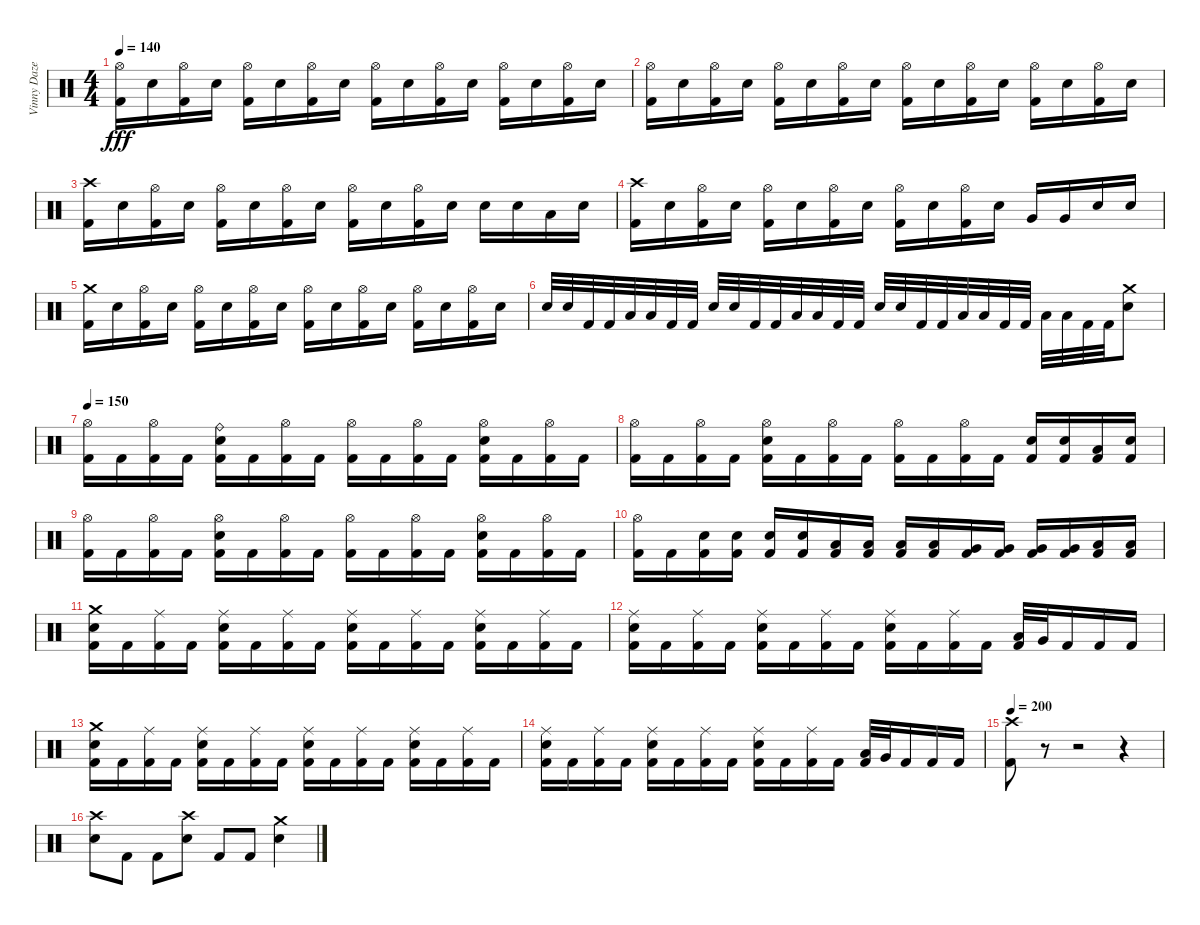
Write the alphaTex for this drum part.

\track ("Vinny Daze (R.I.P.)" "Vinny Daze") {instrument percussion}
\staff {score}
\articulation defaults
\ts (4 4)
\tempo 140
\clef neutral
\ks c
("Hi-Hat (open)" "Kick (hit) 2").16{dy fff} "Electric Snare (hit)".16 ("Hi-Hat (open)" "Kick (hit) 2").16 "Electric Snare (hit)".16 ("Hi-Hat (open)" "Kick (hit) 2").16 "Electric Snare (hit)".16 ("Hi-Hat (open)" "Kick (hit) 2").16 "Electric Snare (hit)".16 ("Hi-Hat (open)" "Kick (hit) 2").16 "Electric Snare (hit)".16 ("Hi-Hat (open)" "Kick (hit) 2").16 "Electric Snare (hit)".16 ("Hi-Hat (open)" "Kick (hit) 2").16 "Electric Snare (hit)".16 ("Hi-Hat (open)" "Kick (hit) 2").16 "Electric Snare (hit)".16 |
("Hi-Hat (open)" "Kick (hit) 2").16 "Electric Snare (hit)".16 ("Hi-Hat (open)" "Kick (hit) 2").16 "Electric Snare (hit)".16 ("Hi-Hat (open)" "Kick (hit) 2").16 "Electric Snare (hit)".16 ("Hi-Hat (open)" "Kick (hit) 2").16 "Electric Snare (hit)".16 ("Hi-Hat (open)" "Kick (hit) 2").16 "Electric Snare (hit)".16 ("Hi-Hat (open)" "Kick (hit) 2").16 "Electric Snare (hit)".16 ("Hi-Hat (open)" "Kick (hit) 2").16 "Electric Snare (hit)".16 ("Hi-Hat (open)" "Kick (hit) 2").16 "Electric Snare (hit)".16 |
("Crash high (hit)" "Kick (hit) 2").16 "Electric Snare (hit)".16 ("Hi-Hat (open)" "Kick (hit) 2").16 "Electric Snare (hit)".16 ("Hi-Hat (open)" "Kick (hit) 2").16 "Electric Snare (hit)".16 ("Hi-Hat (open)" "Kick (hit) 2").16 "Electric Snare (hit)".16 ("Hi-Hat (open)" "Kick (hit) 2").16 "Electric Snare (hit)".16 ("Hi-Hat (open)" "Kick (hit) 2").16 "Electric Snare (hit)".16 "Electric Snare (hit)".16 "Electric Snare (hit)".16 "Low Tom (hit)".16 "Electric Snare (hit)".16 |
("Crash high (hit)" "Kick (hit) 2").16 "Electric Snare (hit)".16 ("Hi-Hat (open)" "Kick (hit) 2").16 "Electric Snare (hit)".16 ("Hi-Hat (open)" "Kick (hit) 2").16 "Electric Snare (hit)".16 ("Hi-Hat (open)" "Kick (hit) 2").16 "Electric Snare (hit)".16 ("Hi-Hat (open)" "Kick (hit) 2").16 "Electric Snare (hit)".16 ("Hi-Hat (open)" "Kick (hit) 2").16 "Electric Snare (hit)".16 "Very Low Tom (hit)".16 "Very Low Tom (hit)".16 "Electric Snare (hit)".16 "Electric Snare (hit)".16 |
("Crash medium (hit)" "Kick (hit) 2").16 "Electric Snare (hit)".16 ("Hi-Hat (open)" "Kick (hit) 2").16 "Electric Snare (hit)".16 ("Hi-Hat (open)" "Kick (hit) 2").16 "Electric Snare (hit)".16 ("Hi-Hat (open)" "Kick (hit) 2").16 "Electric Snare (hit)".16 ("Hi-Hat (open)" "Kick (hit) 2").16 "Electric Snare (hit)".16 ("Hi-Hat (open)" "Kick (hit) 2").16 "Electric Snare (hit)".16 ("Hi-Hat (open)" "Kick (hit) 2").16 "Electric Snare (hit)".16 ("Hi-Hat (open)" "Kick (hit) 2").16 "Electric Snare (hit)".16 |
"Electric Snare (hit)".32 "Electric Snare (hit)".32 "Kick (hit) 2".32 "Kick (hit) 2".32 "Low Floor Tom (hit)".32 "Low Floor Tom (hit)".32 "Kick (hit) 2".32 "Kick (hit) 2".32 "Electric Snare (hit)".32 "Electric Snare (hit)".32 "Kick (hit) 2".32 "Kick (hit) 2".32 "Low Floor Tom (hit)".32 "Low Floor Tom (hit)".32 "Kick (hit) 2".32 "Kick (hit) 2".32 "Electric Snare (hit)".32 "Electric Snare (hit)".32 "Kick (hit) 2".32 "Kick (hit) 2".32 "Low Floor Tom (hit)".32 "Low Floor Tom (hit)".32 "Kick (hit) 2".32 "Kick (hit) 2".32 "Low Floor Tom (hit)".32 "Low Floor Tom (hit)".32 "Kick (hit) 2".32 "Kick (hit) 2".32 ("Crash medium (hit)" "Electric Snare (hit)").8 |
\tempo 150
("Hi-Hat (open)" "Kick (hit) 2").16 "Kick (hit) 2".16 ("Hi-Hat (open)" "Kick (hit) 2").16 "Kick (hit) 2".16 ("Ride (bell)" "Electric Snare (hit)" "Kick (hit) 2").16 "Kick (hit) 2".16 ("Hi-Hat (open)" "Kick (hit) 2").16 "Kick (hit) 2".16 ("Hi-Hat (open)" "Kick (hit) 2").16 "Kick (hit) 2".16 ("Hi-Hat (open)" "Kick (hit) 2").16 "Kick (hit) 2".16 ("Hi-Hat (open)" "Electric Snare (hit)" "Kick (hit) 2").16 "Kick (hit) 2".16 ("Hi-Hat (open)" "Kick (hit) 2").16 "Kick (hit) 2".16 |
("Hi-Hat (open)" "Kick (hit) 2").16 "Kick (hit) 2".16 ("Hi-Hat (open)" "Kick (hit) 2").16 "Kick (hit) 2".16 ("Hi-Hat (open)" "Electric Snare (hit)" "Kick (hit) 2").16 "Kick (hit) 2".16 ("Hi-Hat (open)" "Kick (hit) 2").16 "Kick (hit) 2".16 ("Hi-Hat (open)" "Kick (hit) 2").16 "Kick (hit) 2".16 ("Hi-Hat (open)" "Kick (hit) 2").16 "Kick (hit) 2".16 ("Electric Snare (hit)" "Kick (hit) 2").16 ("Electric Snare (hit)" "Kick (hit) 2").16 ("Low Tom (hit)" "Kick (hit) 2").16 ("Electric Snare (hit)" "Kick (hit) 2").16 |
("Hi-Hat (open)" "Kick (hit) 2").16 "Kick (hit) 2".16 ("Hi-Hat (open)" "Kick (hit) 2").16 "Kick (hit) 2".16 ("Hi-Hat (open)" "Electric Snare (hit)" "Kick (hit) 2").16 "Kick (hit) 2".16 ("Hi-Hat (open)" "Kick (hit) 2").16 "Kick (hit) 2".16 ("Hi-Hat (open)" "Kick (hit) 2").16 "Kick (hit) 2".16 ("Hi-Hat (open)" "Kick (hit) 2").16 "Kick (hit) 2".16 ("Hi-Hat (open)" "Electric Snare (hit)" "Kick (hit) 2").16 "Kick (hit) 2".16 ("Hi-Hat (open)" "Kick (hit) 2").16 "Kick (hit) 2".16 |
("Hi-Hat (open)" "Kick (hit) 2").16 "Kick (hit) 2".16 ("Electric Snare (hit)" "Kick (hit) 2").16 ("Electric Snare (hit)" "Kick (hit) 2").16 ("Electric Snare (hit)" "Kick (hit) 2").16 ("Electric Snare (hit)" "Kick (hit) 2").16 ("Low Tom (hit)" "Kick (hit) 2").16 ("Low Tom (hit)" "Kick (hit) 2").16 ("Low Tom (hit)" "Kick (hit) 2").16 ("Low Tom (hit)" "Kick (hit) 2").16 ("Very Low Tom (hit)" "Kick (hit) 2").16 ("Very Low Tom (hit)" "Kick (hit) 2").16 ("Very Low Tom (hit)" "Kick (hit) 2").16 ("Very Low Tom (hit)" "Kick (hit) 2").16 ("Low Floor Tom (hit)" "Kick (hit) 2").16 ("Low Floor Tom (hit)" "Kick (hit) 2").16 |
("Crash medium (hit)" "Electric Snare (hit)" "Kick (hit) 2").16 "Kick (hit) 2".16 ("Ride (middle)" "Kick (hit) 2").16 "Kick (hit) 2".16 ("Ride (middle)" "Electric Snare (hit)" "Kick (hit) 2").16 "Kick (hit) 2".16 ("Ride (middle)" "Kick (hit) 2").16 "Kick (hit) 2".16 ("Ride (middle)" "Electric Snare (hit)" "Kick (hit) 2").16 "Kick (hit) 2".16 ("Ride (middle)" "Kick (hit) 2").16 "Kick (hit) 2".16 ("Ride (middle)" "Electric Snare (hit)" "Kick (hit) 2").16 "Kick (hit) 2".16 ("Ride (middle)" "Kick (hit) 2").16 "Kick (hit) 2".16 |
("Ride (middle)" "Electric Snare (hit)" "Kick (hit) 2").16 "Kick (hit) 2".16 ("Ride (middle)" "Kick (hit) 2").16 "Kick (hit) 2".16 ("Ride (middle)" "Electric Snare (hit)" "Kick (hit) 2").16 "Kick (hit) 2".16 ("Ride (middle)" "Kick (hit) 2").16 "Kick (hit) 2".16 ("Ride (middle)" "Electric Snare (hit)" "Kick (hit) 2").16 "Kick (hit) 2".16 ("Ride (middle)" "Kick (hit) 2").16 "Kick (hit) 2".16 ("Low Tom (hit)" "Kick (hit) 2").32 "Very Low Tom (hit)".32 "Kick (hit) 2".16 "Kick (hit) 2".16 "Kick (hit) 2".16 |
("Crash medium (hit)" "Electric Snare (hit)" "Kick (hit) 2").16 "Kick (hit) 2".16 ("Ride (middle)" "Kick (hit) 2").16 "Kick (hit) 2".16 ("Ride (middle)" "Electric Snare (hit)" "Kick (hit) 2").16 "Kick (hit) 2".16 ("Ride (middle)" "Kick (hit) 2").16 "Kick (hit) 2".16 ("Ride (middle)" "Electric Snare (hit)" "Kick (hit) 2").16 "Kick (hit) 2".16 ("Ride (middle)" "Kick (hit) 2").16 "Kick (hit) 2".16 ("Ride (middle)" "Electric Snare (hit)" "Kick (hit) 2").16 "Kick (hit) 2".16 ("Ride (middle)" "Kick (hit) 2").16 "Kick (hit) 2".16 |
("Ride (middle)" "Electric Snare (hit)" "Kick (hit) 2").16 "Kick (hit) 2".16 ("Ride (middle)" "Kick (hit) 2").16 "Kick (hit) 2".16 ("Ride (middle)" "Electric Snare (hit)" "Kick (hit) 2").16 "Kick (hit) 2".16 ("Ride (middle)" "Kick (hit) 2").16 "Kick (hit) 2".16 ("Ride (middle)" "Electric Snare (hit)" "Kick (hit) 2").16 "Kick (hit) 2".16 ("Ride (middle)" "Kick (hit) 2").16 "Kick (hit) 2".16 ("Low Tom (hit)" "Kick (hit) 2").32 "Very Low Tom (hit)".32 "Kick (hit) 2".16 "Kick (hit) 2".16 "Kick (hit) 2".16 |
\tempo 200
("Crash high (hit)" "Kick (hit) 2").8 r.8 r.2 r.4 |
("Crash high (hit)" "Electric Snare (hit)").8 "Kick (hit) 2".8 "Kick (hit) 2".8 ("Crash high (hit)" "Electric Snare (hit)").8 "Kick (hit) 2".8 "Kick (hit) 2".8 ("Crash medium (hit)" "Electric Snare (hit)").4
